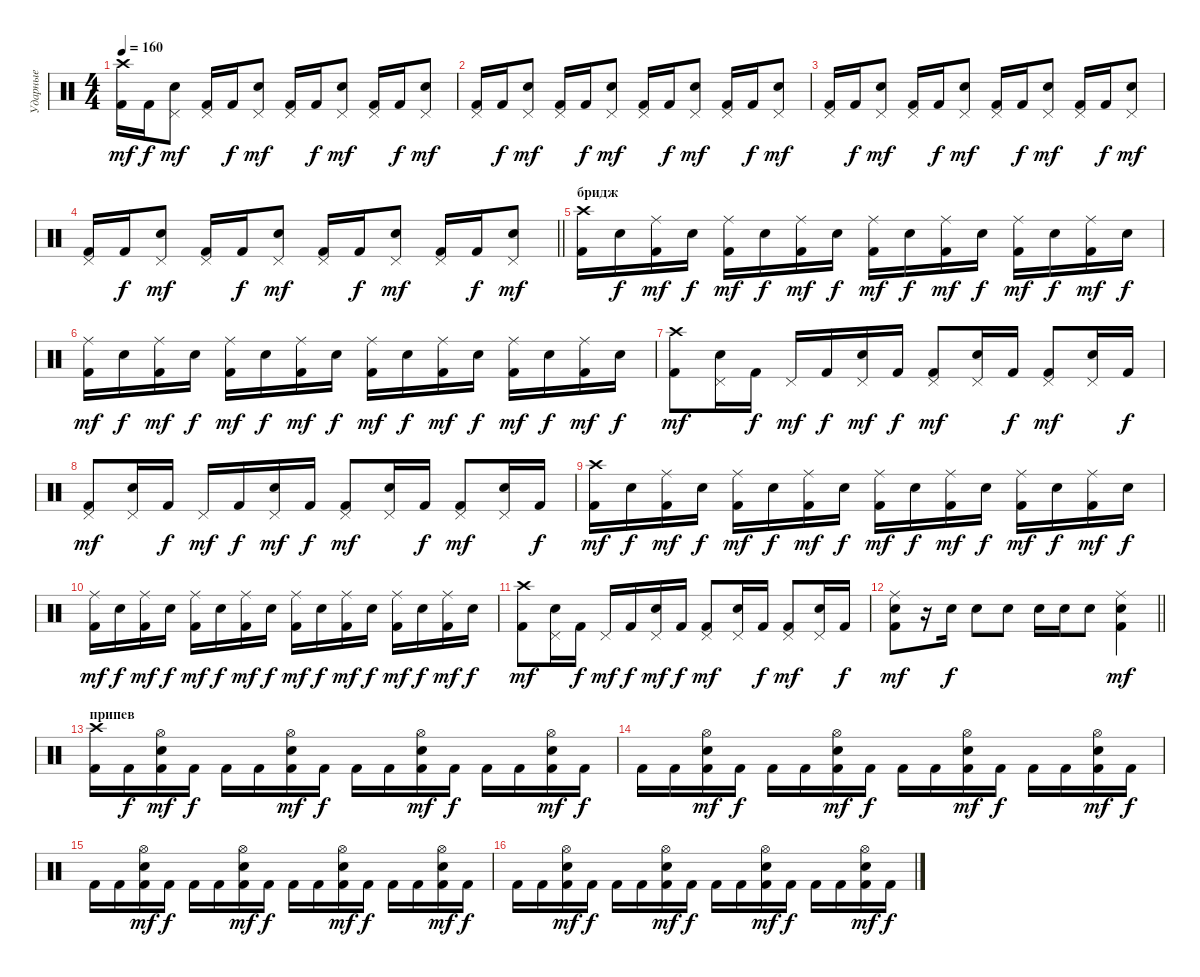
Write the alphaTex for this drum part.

\track ("Ударные" "Ударные") {instrument percussion}
\staff {score}
\articulation defaults
\ts (4 4)
\tempo 160
\clef neutral
\ks c
("Kick (hit) 2" "Crash high (hit)").16{dy mf} "Kick (hit) 2".16{dy f} ("Electric Snare (hit)" "Pedal Hi-Hat (hit)").8{dy mf} ("Kick (hit) 2" "Pedal Hi-Hat (hit)").16 "Kick (hit) 2".16{dy f} ("Electric Snare (hit)" "Pedal Hi-Hat (hit)").8{dy mf} ("Kick (hit) 2" "Pedal Hi-Hat (hit)").16 "Kick (hit) 2".16{dy f} ("Electric Snare (hit)" "Pedal Hi-Hat (hit)").8{dy mf} ("Kick (hit) 2" "Pedal Hi-Hat (hit)").16 "Kick (hit) 2".16{dy f} ("Electric Snare (hit)" "Pedal Hi-Hat (hit)").8{dy mf} |
("Kick (hit) 2" "Pedal Hi-Hat (hit)").16 "Kick (hit) 2".16{dy f} ("Electric Snare (hit)" "Pedal Hi-Hat (hit)").8{dy mf} ("Kick (hit) 2" "Pedal Hi-Hat (hit)").16 "Kick (hit) 2".16{dy f} ("Electric Snare (hit)" "Pedal Hi-Hat (hit)").8{dy mf} ("Kick (hit) 2" "Pedal Hi-Hat (hit)").16 "Kick (hit) 2".16{dy f} ("Electric Snare (hit)" "Pedal Hi-Hat (hit)").8{dy mf} ("Kick (hit) 2" "Pedal Hi-Hat (hit)").16 "Kick (hit) 2".16{dy f} ("Electric Snare (hit)" "Pedal Hi-Hat (hit)").8{dy mf} |
("Kick (hit) 2" "Pedal Hi-Hat (hit)").16 "Kick (hit) 2".16{dy f} ("Electric Snare (hit)" "Pedal Hi-Hat (hit)").8{dy mf} ("Kick (hit) 2" "Pedal Hi-Hat (hit)").16 "Kick (hit) 2".16{dy f} ("Electric Snare (hit)" "Pedal Hi-Hat (hit)").8{dy mf} ("Kick (hit) 2" "Pedal Hi-Hat (hit)").16 "Kick (hit) 2".16{dy f} ("Electric Snare (hit)" "Pedal Hi-Hat (hit)").8{dy mf} ("Kick (hit) 2" "Pedal Hi-Hat (hit)").16 "Kick (hit) 2".16{dy f} ("Electric Snare (hit)" "Pedal Hi-Hat (hit)").8{dy mf} |
\barLineRight lightlight
("Kick (hit) 2" "Pedal Hi-Hat (hit)").16 "Kick (hit) 2".16{dy f} ("Electric Snare (hit)" "Pedal Hi-Hat (hit)").8{dy mf} ("Kick (hit) 2" "Pedal Hi-Hat (hit)").16 "Kick (hit) 2".16{dy f} ("Electric Snare (hit)" "Pedal Hi-Hat (hit)").8{dy mf} ("Kick (hit) 2" "Pedal Hi-Hat (hit)").16 "Kick (hit) 2".16{dy f} ("Electric Snare (hit)" "Pedal Hi-Hat (hit)").8{dy mf} ("Kick (hit) 2" "Pedal Hi-Hat (hit)").16 "Kick (hit) 2".16{dy f} ("Electric Snare (hit)" "Pedal Hi-Hat (hit)").8{dy mf} |
\section ("" "бридж")
("Kick (hit) 2" "Crash high (hit)").16 "Electric Snare (hit)".16{dy f} ("Kick (hit) 2" "Ride (middle)").16{dy mf} "Electric Snare (hit)".16{dy f} ("Kick (hit) 2" "Ride (middle)").16{dy mf} "Electric Snare (hit)".16{dy f} ("Kick (hit) 2" "Ride (middle)").16{dy mf} "Electric Snare (hit)".16{dy f} ("Kick (hit) 2" "Ride (middle)").16{dy mf} "Electric Snare (hit)".16{dy f} ("Kick (hit) 2" "Ride (middle)").16{dy mf} "Electric Snare (hit)".16{dy f} ("Kick (hit) 2" "Ride (middle)").16{dy mf} "Electric Snare (hit)".16{dy f} ("Kick (hit) 2" "Ride (middle)").16{dy mf} "Electric Snare (hit)".16{dy f} |
("Kick (hit) 2" "Ride (middle)").16{dy mf} "Electric Snare (hit)".16{dy f} ("Kick (hit) 2" "Ride (middle)").16{dy mf} "Electric Snare (hit)".16{dy f} ("Kick (hit) 2" "Ride (middle)").16{dy mf} "Electric Snare (hit)".16{dy f} ("Kick (hit) 2" "Ride (middle)").16{dy mf} "Electric Snare (hit)".16{dy f} ("Kick (hit) 2" "Ride (middle)").16{dy mf} "Electric Snare (hit)".16{dy f} ("Kick (hit) 2" "Ride (middle)").16{dy mf} "Electric Snare (hit)".16{dy f} ("Kick (hit) 2" "Ride (middle)").16{dy mf} "Electric Snare (hit)".16{dy f} ("Kick (hit) 2" "Ride (middle)").16{dy mf} "Electric Snare (hit)".16{dy f} |
("Kick (hit) 2" "Crash high (hit)").8{dy mf} ("Electric Snare (hit)" "Pedal Hi-Hat (hit)").16 "Kick (hit) 2".16{dy f} "Pedal Hi-Hat (hit)".16{dy mf} "Kick (hit) 2".16{dy f} ("Electric Snare (hit)" "Pedal Hi-Hat (hit)").16{dy mf} "Kick (hit) 2".16{dy f} ("Kick (hit) 2" "Pedal Hi-Hat (hit)").8{dy mf} ("Electric Snare (hit)" "Pedal Hi-Hat (hit)").16 "Kick (hit) 2".16{dy f} ("Kick (hit) 2" "Pedal Hi-Hat (hit)").8{dy mf} ("Electric Snare (hit)" "Pedal Hi-Hat (hit)").16 "Kick (hit) 2".16{dy f} |
("Kick (hit) 2" "Pedal Hi-Hat (hit)").8{dy mf} ("Electric Snare (hit)" "Pedal Hi-Hat (hit)").16 "Kick (hit) 2".16{dy f} "Pedal Hi-Hat (hit)".16{dy mf} "Kick (hit) 2".16{dy f} ("Electric Snare (hit)" "Pedal Hi-Hat (hit)").16{dy mf} "Kick (hit) 2".16{dy f} ("Kick (hit) 2" "Pedal Hi-Hat (hit)").8{dy mf} ("Electric Snare (hit)" "Pedal Hi-Hat (hit)").16 "Kick (hit) 2".16{dy f} ("Kick (hit) 2" "Pedal Hi-Hat (hit)").8{dy mf} ("Electric Snare (hit)" "Pedal Hi-Hat (hit)").16 "Kick (hit) 2".16{dy f} |
("Kick (hit) 2" "Crash high (hit)").16{dy mf} "Electric Snare (hit)".16{dy f} ("Kick (hit) 2" "Ride (middle)").16{dy mf} "Electric Snare (hit)".16{dy f} ("Kick (hit) 2" "Ride (middle)").16{dy mf} "Electric Snare (hit)".16{dy f} ("Kick (hit) 2" "Ride (middle)").16{dy mf} "Electric Snare (hit)".16{dy f} ("Kick (hit) 2" "Ride (middle)").16{dy mf} "Electric Snare (hit)".16{dy f} ("Kick (hit) 2" "Ride (middle)").16{dy mf} "Electric Snare (hit)".16{dy f} ("Kick (hit) 2" "Ride (middle)").16{dy mf} "Electric Snare (hit)".16{dy f} ("Kick (hit) 2" "Ride (middle)").16{dy mf} "Electric Snare (hit)".16{dy f} |
("Kick (hit) 2" "Ride (middle)").16{dy mf} "Electric Snare (hit)".16{dy f} ("Kick (hit) 2" "Ride (middle)").16{dy mf} "Electric Snare (hit)".16{dy f} ("Kick (hit) 2" "Ride (middle)").16{dy mf} "Electric Snare (hit)".16{dy f} ("Kick (hit) 2" "Ride (middle)").16{dy mf} "Electric Snare (hit)".16{dy f} ("Kick (hit) 2" "Ride (middle)").16{dy mf} "Electric Snare (hit)".16{dy f} ("Kick (hit) 2" "Ride (middle)").16{dy mf} "Electric Snare (hit)".16{dy f} ("Kick (hit) 2" "Ride (middle)").16{dy mf} "Electric Snare (hit)".16{dy f} ("Kick (hit) 2" "Ride (middle)").16{dy mf} "Electric Snare (hit)".16{dy f} |
("Kick (hit) 2" "Crash high (hit)").8{dy mf} ("Electric Snare (hit)" "Pedal Hi-Hat (hit)").16 "Kick (hit) 2".16{dy f} "Pedal Hi-Hat (hit)".16{dy mf} "Kick (hit) 2".16{dy f} ("Electric Snare (hit)" "Pedal Hi-Hat (hit)").16{dy mf} "Kick (hit) 2".16{dy f} ("Kick (hit) 2" "Pedal Hi-Hat (hit)").8{dy mf} ("Electric Snare (hit)" "Pedal Hi-Hat (hit)").16 "Kick (hit) 2".16{dy f} ("Kick (hit) 2" "Pedal Hi-Hat (hit)").8{dy mf} ("Electric Snare (hit)" "Pedal Hi-Hat (hit)").16 "Kick (hit) 2".16{dy f} |
\barLineRight lightlight
("Kick (hit) 2" "Electric Snare (hit)" "Ride (middle)").8{dy mf} r.16 "Electric Snare (hit)".16{dy f} "Electric Snare (hit)".8 "Electric Snare (hit)".8 "Electric Snare (hit)".16 "Electric Snare (hit)".16 "Electric Snare (hit)".8 ("Kick (hit) 2" "Electric Snare (hit)" "Ride (middle)").4{dy mf} |
\section ("" "припев")
("Kick (hit) 2" "Crash high (hit)").16 "Kick (hit) 2".16{dy f} ("Kick (hit) 2" "Electric Snare (hit)" "Hi-Hat (open)").16{dy mf} "Kick (hit) 2".16{dy f} "Kick (hit) 2".16 "Kick (hit) 2".16 ("Kick (hit) 2" "Electric Snare (hit)" "Hi-Hat (open)").16{dy mf} "Kick (hit) 2".16{dy f} "Kick (hit) 2".16 "Kick (hit) 2".16 ("Kick (hit) 2" "Electric Snare (hit)" "Hi-Hat (open)").16{dy mf} "Kick (hit) 2".16{dy f} "Kick (hit) 2".16 "Kick (hit) 2".16 ("Kick (hit) 2" "Electric Snare (hit)" "Hi-Hat (open)").16{dy mf} "Kick (hit) 2".16{dy f} |
"Kick (hit) 2".16 "Kick (hit) 2".16 ("Kick (hit) 2" "Electric Snare (hit)" "Hi-Hat (open)").16{dy mf} "Kick (hit) 2".16{dy f} "Kick (hit) 2".16 "Kick (hit) 2".16 ("Kick (hit) 2" "Electric Snare (hit)" "Hi-Hat (open)").16{dy mf} "Kick (hit) 2".16{dy f} "Kick (hit) 2".16 "Kick (hit) 2".16 ("Kick (hit) 2" "Electric Snare (hit)" "Hi-Hat (open)").16{dy mf} "Kick (hit) 2".16{dy f} "Kick (hit) 2".16 "Kick (hit) 2".16 ("Kick (hit) 2" "Electric Snare (hit)" "Hi-Hat (open)").16{dy mf} "Kick (hit) 2".16{dy f} |
"Kick (hit) 2".16 "Kick (hit) 2".16 ("Kick (hit) 2" "Electric Snare (hit)" "Hi-Hat (open)").16{dy mf} "Kick (hit) 2".16{dy f} "Kick (hit) 2".16 "Kick (hit) 2".16 ("Kick (hit) 2" "Electric Snare (hit)" "Hi-Hat (open)").16{dy mf} "Kick (hit) 2".16{dy f} "Kick (hit) 2".16 "Kick (hit) 2".16 ("Kick (hit) 2" "Electric Snare (hit)" "Hi-Hat (open)").16{dy mf} "Kick (hit) 2".16{dy f} "Kick (hit) 2".16 "Kick (hit) 2".16 ("Kick (hit) 2" "Electric Snare (hit)" "Hi-Hat (open)").16{dy mf} "Kick (hit) 2".16{dy f} |
"Kick (hit) 2".16 "Kick (hit) 2".16 ("Kick (hit) 2" "Electric Snare (hit)" "Hi-Hat (open)").16{dy mf} "Kick (hit) 2".16{dy f} "Kick (hit) 2".16 "Kick (hit) 2".16 ("Kick (hit) 2" "Electric Snare (hit)" "Hi-Hat (open)").16{dy mf} "Kick (hit) 2".16{dy f} "Kick (hit) 2".16 "Kick (hit) 2".16 ("Kick (hit) 2" "Electric Snare (hit)" "Hi-Hat (open)").16{dy mf} "Kick (hit) 2".16{dy f} "Kick (hit) 2".16 "Kick (hit) 2".16 ("Kick (hit) 2" "Electric Snare (hit)" "Hi-Hat (open)").16{dy mf} "Kick (hit) 2".16{dy f}
